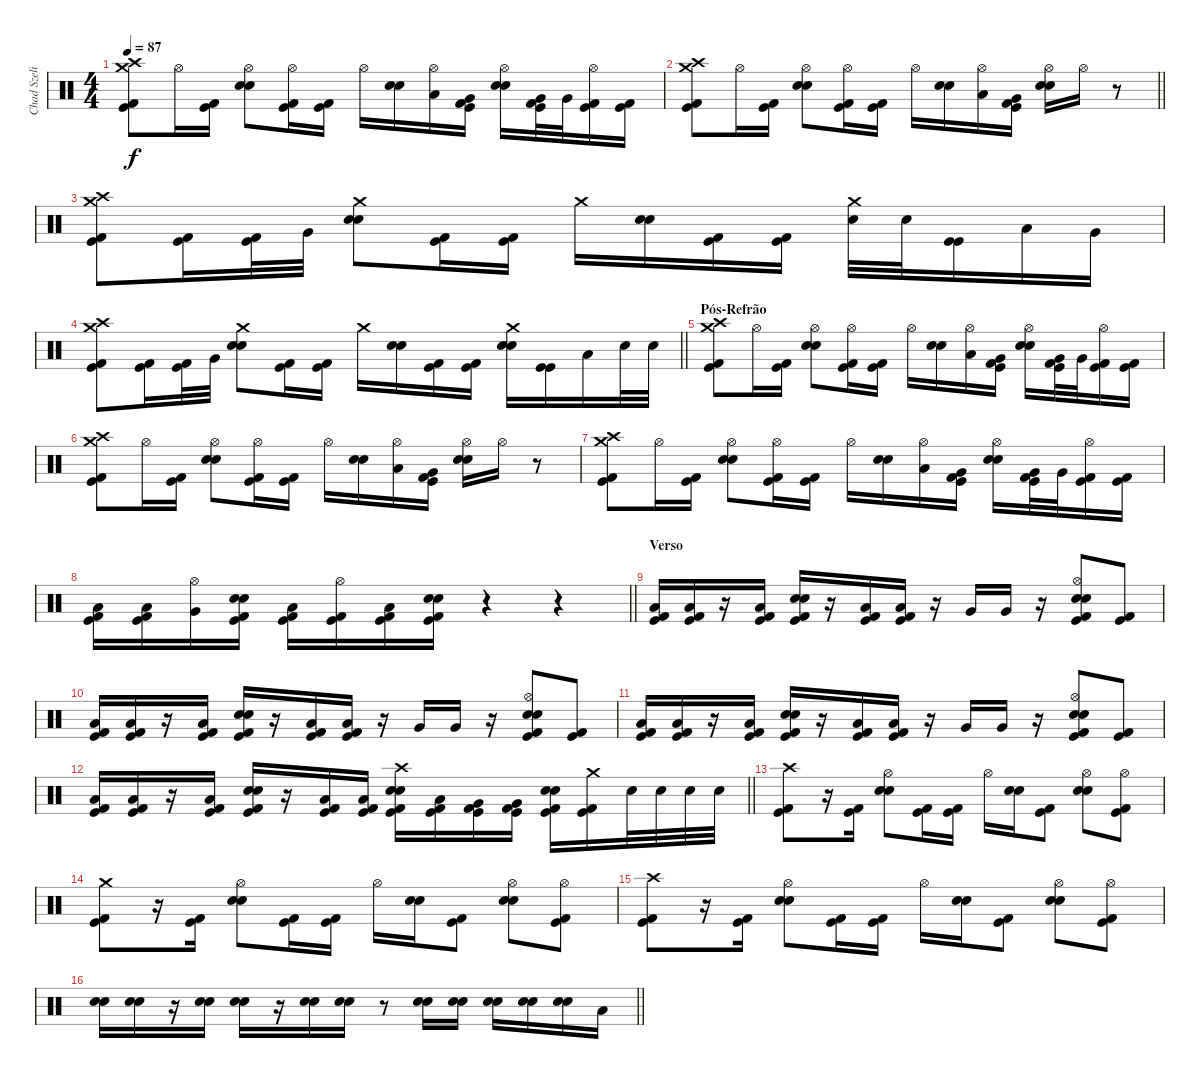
\track ("Chad Szeliga" "Chad Szeli") {instrument percussion}
\staff {score}
\articulation defaults
\ts (4 4)
\tempo 87
\clef neutral
\ks c
("Crash high (hit)" "Kick (hit) 2" "Kick (hit)" "Crash medium (hit)").8{dy f} "Hi-Hat (open)".16 ("Kick (hit) 2" "Kick (hit)").16 ("Snare (hit) 2" "Snare (hit) 2" "Hi-Hat (open)").8 ("Kick (hit) 2" "Kick (hit)" "Hi-Hat (open)").16 ("Kick (hit) 2" "Kick (hit)").16 "Hi-Hat (open)".16 ("Snare (hit) 2" "Snare (hit) 2").16 ("Low Tom (hit)" "Hi-Hat (open)").16 ("Kick (hit) 2" "Kick (hit)" "Very Low Tom (hit)").16 ("Snare (hit) 2" "Snare (hit) 2" "Hi-Hat (open)").16 ("Kick (hit) 2" "Kick (hit)" "Very Low Tom (hit)").32 "Very Low Tom (hit)".32 ("Kick (hit) 2" "Kick (hit)" "Hi-Hat (open)").16 ("Kick (hit) 2" "Kick (hit)").16 |
\barLineRight lightlight
("Crash high (hit)" "Kick (hit) 2" "Kick (hit)" "Crash medium (hit)").8 "Hi-Hat (open)".16 ("Kick (hit) 2" "Kick (hit)").16 ("Snare (hit) 2" "Snare (hit) 2" "Hi-Hat (open)").8 ("Kick (hit) 2" "Kick (hit)" "Hi-Hat (open)").16 ("Kick (hit) 2" "Kick (hit)").16 "Hi-Hat (open)".16 ("Snare (hit) 2" "Snare (hit) 2").16 ("Low Tom (hit)" "Hi-Hat (open)").16 ("Kick (hit) 2" "Kick (hit)" "Very Low Tom (hit)").16 ("Snare (hit) 2" "Snare (hit) 2" "Hi-Hat (open)").16 "Hi-Hat (open)".16 r.8 |
("Crash high (hit)" "Kick (hit) 2" "Kick (hit)" "Crash medium (hit)").8 ("Kick (hit) 2" "Kick (hit)").16 ("Kick (hit) 2" "Kick (hit)").32 "Very Low Tom (hit)".32 ("Crash medium (hit)" "Snare (hit) 2" "Snare (hit) 2").8 ("Kick (hit) 2" "Kick (hit)").16 ("Kick (hit) 2" "Kick (hit)").16 "Crash medium (hit)".16 ("Snare (hit) 2" "Snare (hit) 2").16 ("Kick (hit) 2" "Kick (hit)").16 ("Kick (hit) 2" "Kick (hit)").16 ("Crash medium (hit)" "Snare (hit) 2").32 "Snare (hit) 2".32 ("Kick (hit)" "Kick (hit)").16 "Low Tom (hit)".16 "Very Low Tom (hit)".16 |
\barLineRight lightlight
("Crash high (hit)" "Kick (hit) 2" "Kick (hit)" "Crash medium (hit)").8 ("Kick (hit) 2" "Kick (hit)").16 ("Kick (hit) 2" "Kick (hit)").32 "Very Low Tom (hit)".32 ("Crash medium (hit)" "Snare (hit) 2" "Snare (hit) 2").8 ("Kick (hit) 2" "Kick (hit)").16 ("Kick (hit) 2" "Kick (hit)").16 "Crash medium (hit)".16 ("Snare (hit) 2" "Snare (hit) 2").16 ("Kick (hit) 2" "Kick (hit)").16 ("Kick (hit) 2" "Kick (hit)").16 ("Crash medium (hit)" "Snare (hit) 2" "Snare (hit) 2").16 ("Kick (hit)" "Kick (hit)").16 "Low Tom (hit)".16 "Snare (hit) 2".32 "Snare (hit) 2".32 |
\section ("" "Pós-Refrão")
("Crash high (hit)" "Kick (hit) 2" "Kick (hit)" "Crash medium (hit)").8 "Hi-Hat (open)".16 ("Kick (hit) 2" "Kick (hit)").16 ("Snare (hit) 2" "Snare (hit) 2" "Hi-Hat (open)").8 ("Kick (hit) 2" "Kick (hit)" "Hi-Hat (open)").16 ("Kick (hit) 2" "Kick (hit)").16 "Hi-Hat (open)".16 ("Snare (hit) 2" "Snare (hit) 2").16 ("Low Tom (hit)" "Hi-Hat (open)").16 ("Kick (hit) 2" "Kick (hit)" "Very Low Tom (hit)").16 ("Snare (hit) 2" "Snare (hit) 2" "Hi-Hat (open)").16 ("Kick (hit) 2" "Kick (hit)" "Very Low Tom (hit)").32 "Very Low Tom (hit)".32 ("Kick (hit) 2" "Kick (hit)" "Hi-Hat (open)").16 ("Kick (hit) 2" "Kick (hit)").16 |
("Crash high (hit)" "Kick (hit) 2" "Kick (hit)" "Crash medium (hit)").8 "Hi-Hat (open)".16 ("Kick (hit) 2" "Kick (hit)").16 ("Snare (hit) 2" "Snare (hit) 2" "Hi-Hat (open)").8 ("Kick (hit) 2" "Kick (hit)" "Hi-Hat (open)").16 ("Kick (hit) 2" "Kick (hit)").16 "Hi-Hat (open)".16 ("Snare (hit) 2" "Snare (hit) 2").16 ("Low Tom (hit)" "Hi-Hat (open)").16 ("Kick (hit) 2" "Kick (hit)" "Very Low Tom (hit)").16 ("Snare (hit) 2" "Snare (hit) 2" "Hi-Hat (open)").16 "Hi-Hat (open)".16 r.8 |
("Crash high (hit)" "Kick (hit) 2" "Kick (hit)" "Crash medium (hit)").8 "Hi-Hat (open)".16 ("Kick (hit) 2" "Kick (hit)").16 ("Snare (hit) 2" "Snare (hit) 2" "Hi-Hat (open)").8 ("Kick (hit) 2" "Kick (hit)" "Hi-Hat (open)").16 ("Kick (hit) 2" "Kick (hit)").16 "Hi-Hat (open)".16 ("Snare (hit) 2" "Snare (hit) 2").16 ("Low Tom (hit)" "Hi-Hat (open)").16 ("Kick (hit) 2" "Kick (hit)" "Very Low Tom (hit)").16 ("Snare (hit) 2" "Snare (hit) 2" "Hi-Hat (open)").16 ("Kick (hit) 2" "Kick (hit)" "Very Low Tom (hit)").32 "Very Low Tom (hit)".32 ("Kick (hit) 2" "Kick (hit)" "Hi-Hat (open)").16 ("Kick (hit) 2" "Kick (hit)").16 |
\barLineRight lightlight
("Kick (hit) 2" "Kick (hit)" "Low Tom (hit)").16 ("Kick (hit) 2" "Kick (hit)" "Low Tom (hit)").16 ("Very Low Tom (hit)" "Hi-Hat (open)").16 ("Kick (hit) 2" "Kick (hit)" "Snare (hit) 2" "Snare (hit) 2").16 ("Kick (hit) 2" "Kick (hit)" "Low Tom (hit)").16 ("Kick (hit) 2" "Kick (hit)" "Hi-Hat (open)").16 ("Kick (hit) 2" "Kick (hit)" "Low Tom (hit)").16 ("Kick (hit) 2" "Kick (hit)" "Snare (hit) 2" "Snare (hit) 2").16 r.4 r.4 |
\section ("" "Verso")
("Kick (hit) 2" "Kick (hit)" "Low Tom (hit)").16 ("Kick (hit) 2" "Kick (hit)" "Low Tom (hit)").16 r.16 ("Kick (hit) 2" "Kick (hit)" "Low Tom (hit)").16 ("Kick (hit) 2" "Kick (hit)" "Snare (hit) 2" "Snare (hit) 2").16 r.16 ("Kick (hit) 2" "Kick (hit)" "Low Tom (hit)").16 ("Kick (hit) 2" "Kick (hit)" "Low Tom (hit)").16 r.16 "Very Low Tom (hit)".16 "Very Low Tom (hit)".16 r.16 ("Kick (hit) 2" "Kick (hit)" "Snare (hit) 2" "Snare (hit) 2" "Hi-Hat (open)").8 ("Kick (hit) 2" "Kick (hit)").8 |
("Kick (hit) 2" "Kick (hit)" "Low Tom (hit)").16 ("Kick (hit) 2" "Kick (hit)" "Low Tom (hit)").16 r.16 ("Kick (hit) 2" "Kick (hit)" "Low Tom (hit)").16 ("Kick (hit) 2" "Kick (hit)" "Snare (hit) 2" "Snare (hit) 2").16 r.16 ("Kick (hit) 2" "Kick (hit)" "Low Tom (hit)").16 ("Kick (hit) 2" "Kick (hit)" "Low Tom (hit)").16 r.16 "Very Low Tom (hit)".16 "Very Low Tom (hit)".16 r.16 ("Kick (hit) 2" "Kick (hit)" "Snare (hit) 2" "Snare (hit) 2" "Hi-Hat (open)").8 ("Kick (hit) 2" "Kick (hit)").8 |
("Kick (hit) 2" "Kick (hit)" "Low Tom (hit)").16 ("Kick (hit) 2" "Kick (hit)" "Low Tom (hit)").16 r.16 ("Kick (hit) 2" "Kick (hit)" "Low Tom (hit)").16 ("Kick (hit) 2" "Kick (hit)" "Snare (hit) 2" "Snare (hit) 2").16 r.16 ("Kick (hit) 2" "Kick (hit)" "Low Tom (hit)").16 ("Kick (hit) 2" "Kick (hit)" "Low Tom (hit)").16 r.16 "Very Low Tom (hit)".16 "Very Low Tom (hit)".16 r.16 ("Kick (hit) 2" "Kick (hit)" "Snare (hit) 2" "Snare (hit) 2" "Hi-Hat (open)").8 ("Kick (hit) 2" "Kick (hit)").8 |
\barLineRight lightlight
("Kick (hit) 2" "Kick (hit)" "Low Tom (hit)").16 ("Kick (hit) 2" "Kick (hit)" "Low Tom (hit)").16 r.16 ("Kick (hit) 2" "Kick (hit)" "Low Tom (hit)").16 ("Kick (hit) 2" "Kick (hit)" "Snare (hit) 2" "Snare (hit) 2").16 r.16 ("Kick (hit) 2" "Kick (hit)" "Low Tom (hit)").16 ("Kick (hit) 2" "Kick (hit)" "Low Tom (hit)").16 ("Crash high (hit)" "Kick (hit) 2" "Kick (hit)" "Snare (hit) 2" "Snare (hit) 2").16 ("Kick (hit) 2" "Kick (hit)" "Low Tom (hit)").16 ("Kick (hit) 2" "Kick (hit)" "Very Low Tom (hit)").16 ("Kick (hit) 2" "Kick (hit)" "Very Low Tom (hit)").16 ("Kick (hit) 2" "Kick (hit)" "Snare (hit) 2" "Snare (hit) 2").16 ("Crash medium (hit)" "Kick (hit) 2" "Kick (hit)").16 "Snare (hit) 2".32 "Snare (hit) 2".32 "Snare (hit) 2".32 "Snare (hit) 2".32 |
("Crash high (hit)" "Kick (hit) 2" "Kick (hit)").8 r.16 ("Kick (hit) 2" "Kick (hit)").16 ("Snare (hit) 2" "Snare (hit) 2" "Hi-Hat (open)").8 ("Kick (hit) 2" "Kick (hit)").16 ("Kick (hit) 2" "Kick (hit)").16 "Hi-Hat (open)".16 ("Snare (hit) 2" "Snare (hit) 2").16 ("Kick (hit) 2" "Kick (hit)").8 ("Snare (hit) 2" "Snare (hit) 2" "Hi-Hat (open)").8 ("Kick (hit) 2" "Kick (hit)" "Hi-Hat (open)").8 |
("Crash medium (hit)" "Kick (hit) 2" "Kick (hit)").8 r.16 ("Kick (hit) 2" "Kick (hit)").16 ("Snare (hit) 2" "Snare (hit) 2" "Hi-Hat (open)").8 ("Kick (hit) 2" "Kick (hit)").16 ("Kick (hit) 2" "Kick (hit)").16 "Hi-Hat (open)".16 ("Snare (hit) 2" "Snare (hit) 2").16 ("Kick (hit) 2" "Kick (hit)").8 ("Snare (hit) 2" "Snare (hit) 2" "Hi-Hat (open)").8 ("Kick (hit) 2" "Kick (hit)" "Hi-Hat (open)").8 |
("Crash high (hit)" "Kick (hit) 2" "Kick (hit)").8 r.16 ("Kick (hit) 2" "Kick (hit)").16 ("Snare (hit) 2" "Snare (hit) 2" "Hi-Hat (open)").8 ("Kick (hit) 2" "Kick (hit)").16 ("Kick (hit) 2" "Kick (hit)").16 "Hi-Hat (open)".16 ("Snare (hit) 2" "Snare (hit) 2").16 ("Kick (hit) 2" "Kick (hit)").8 ("Snare (hit) 2" "Snare (hit) 2" "Hi-Hat (open)").8 ("Kick (hit) 2" "Kick (hit)" "Hi-Hat (open)").8 |
\barLineRight lightlight
("Snare (hit) 2" "Snare (hit) 2").16 ("Snare (hit) 2" "Snare (hit) 2").16 r.16 ("Snare (hit) 2" "Snare (hit) 2").16 ("Snare (hit) 2" "Snare (hit) 2").16 r.16 ("Snare (hit) 2" "Snare (hit) 2").16 ("Snare (hit) 2" "Snare (hit) 2").16 r.8 ("Snare (hit) 2" "Snare (hit) 2").16 ("Snare (hit) 2" "Snare (hit) 2").16 ("Snare (hit) 2" "Snare (hit) 2").16 ("Snare (hit) 2" "Snare (hit) 2").16 ("Snare (hit) 2" "Snare (hit) 2").16 "Low Tom (hit)".16
